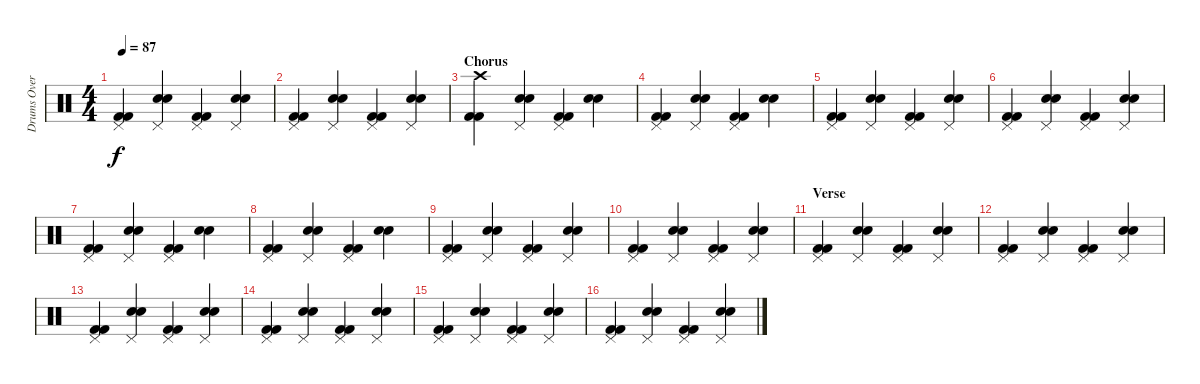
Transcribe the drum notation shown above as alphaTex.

\track ("Drums Overdub" "Drums Over") {instrument percussion}
\staff {score}
\articulation defaults
\ts (4 4)
\tempo 87
\clef neutral
\ks c
("Pedal Hi-Hat (hit)" "Kick (hit) 2" "Kick (hit) 2").4{dy f} ("Snare (hit) 2" "Snare (hit) 2" "Pedal Hi-Hat (hit)").4 ("Pedal Hi-Hat (hit)" "Kick (hit) 2" "Kick (hit) 2").4 ("Snare (hit) 2" "Snare (hit) 2" "Pedal Hi-Hat (hit)").4 |
("Pedal Hi-Hat (hit)" "Kick (hit) 2" "Kick (hit) 2").4 ("Snare (hit) 2" "Snare (hit) 2" "Pedal Hi-Hat (hit)").4 ("Pedal Hi-Hat (hit)" "Kick (hit) 2" "Kick (hit) 2").4 ("Snare (hit) 2" "Snare (hit) 2" "Pedal Hi-Hat (hit)").4 |
\section ("" "Chorus")
("Crash high (hit)" "Kick (hit) 2" "Kick (hit) 2").4 ("Snare (hit) 2" "Snare (hit) 2" "Pedal Hi-Hat (hit)").4 ("Pedal Hi-Hat (hit)" "Kick (hit) 2" "Kick (hit) 2").4 ("Snare (hit) 2" "Snare (hit) 2").4 |
("Pedal Hi-Hat (hit)" "Kick (hit) 2" "Kick (hit) 2").4 ("Snare (hit) 2" "Snare (hit) 2" "Pedal Hi-Hat (hit)").4 ("Pedal Hi-Hat (hit)" "Kick (hit) 2" "Kick (hit) 2").4 ("Snare (hit) 2" "Snare (hit) 2").4 |
("Pedal Hi-Hat (hit)" "Kick (hit) 2" "Kick (hit) 2").4 ("Snare (hit) 2" "Snare (hit) 2" "Pedal Hi-Hat (hit)").4 ("Pedal Hi-Hat (hit)" "Kick (hit) 2" "Kick (hit) 2").4 ("Snare (hit) 2" "Snare (hit) 2" "Pedal Hi-Hat (hit)").4 |
("Pedal Hi-Hat (hit)" "Kick (hit) 2" "Kick (hit) 2").4 ("Snare (hit) 2" "Snare (hit) 2" "Pedal Hi-Hat (hit)").4 ("Pedal Hi-Hat (hit)" "Kick (hit) 2" "Kick (hit) 2").4 ("Snare (hit) 2" "Snare (hit) 2" "Pedal Hi-Hat (hit)").4 |
("Pedal Hi-Hat (hit)" "Kick (hit) 2" "Kick (hit) 2").4 ("Snare (hit) 2" "Snare (hit) 2" "Pedal Hi-Hat (hit)").4 ("Pedal Hi-Hat (hit)" "Kick (hit) 2" "Kick (hit) 2").4 ("Snare (hit) 2" "Snare (hit) 2").4 |
("Pedal Hi-Hat (hit)" "Kick (hit) 2" "Kick (hit) 2").4 ("Snare (hit) 2" "Snare (hit) 2" "Pedal Hi-Hat (hit)").4 ("Pedal Hi-Hat (hit)" "Kick (hit) 2" "Kick (hit) 2").4 ("Snare (hit) 2" "Snare (hit) 2").4 |
("Pedal Hi-Hat (hit)" "Kick (hit) 2" "Kick (hit) 2").4 ("Snare (hit) 2" "Snare (hit) 2" "Pedal Hi-Hat (hit)").4 ("Pedal Hi-Hat (hit)" "Kick (hit) 2" "Kick (hit) 2").4 ("Snare (hit) 2" "Snare (hit) 2" "Pedal Hi-Hat (hit)").4 |
("Pedal Hi-Hat (hit)" "Kick (hit) 2" "Kick (hit) 2").4 ("Snare (hit) 2" "Snare (hit) 2" "Pedal Hi-Hat (hit)").4 ("Pedal Hi-Hat (hit)" "Kick (hit) 2" "Kick (hit) 2").4 ("Snare (hit) 2" "Snare (hit) 2" "Pedal Hi-Hat (hit)").4 |
\section ("" "Verse")
("Pedal Hi-Hat (hit)" "Kick (hit) 2" "Kick (hit) 2").4 ("Snare (hit) 2" "Snare (hit) 2" "Pedal Hi-Hat (hit)").4 ("Pedal Hi-Hat (hit)" "Kick (hit) 2" "Kick (hit) 2").4 ("Snare (hit) 2" "Snare (hit) 2" "Pedal Hi-Hat (hit)").4 |
("Pedal Hi-Hat (hit)" "Kick (hit) 2" "Kick (hit) 2").4 ("Snare (hit) 2" "Snare (hit) 2" "Pedal Hi-Hat (hit)").4 ("Pedal Hi-Hat (hit)" "Kick (hit) 2" "Kick (hit) 2").4 ("Snare (hit) 2" "Snare (hit) 2" "Pedal Hi-Hat (hit)").4 |
("Pedal Hi-Hat (hit)" "Kick (hit) 2" "Kick (hit) 2").4 ("Snare (hit) 2" "Snare (hit) 2" "Pedal Hi-Hat (hit)").4 ("Pedal Hi-Hat (hit)" "Kick (hit) 2" "Kick (hit) 2").4 ("Snare (hit) 2" "Snare (hit) 2" "Pedal Hi-Hat (hit)").4 |
("Pedal Hi-Hat (hit)" "Kick (hit) 2" "Kick (hit) 2").4 ("Snare (hit) 2" "Snare (hit) 2" "Pedal Hi-Hat (hit)").4 ("Pedal Hi-Hat (hit)" "Kick (hit) 2" "Kick (hit) 2").4 ("Snare (hit) 2" "Snare (hit) 2" "Pedal Hi-Hat (hit)").4 |
("Pedal Hi-Hat (hit)" "Kick (hit) 2" "Kick (hit) 2").4 ("Snare (hit) 2" "Snare (hit) 2" "Pedal Hi-Hat (hit)").4 ("Pedal Hi-Hat (hit)" "Kick (hit) 2" "Kick (hit) 2").4 ("Snare (hit) 2" "Snare (hit) 2" "Pedal Hi-Hat (hit)").4 |
("Pedal Hi-Hat (hit)" "Kick (hit) 2" "Kick (hit) 2").4 ("Snare (hit) 2" "Snare (hit) 2" "Pedal Hi-Hat (hit)").4 ("Pedal Hi-Hat (hit)" "Kick (hit) 2" "Kick (hit) 2").4 ("Snare (hit) 2" "Snare (hit) 2" "Pedal Hi-Hat (hit)").4
